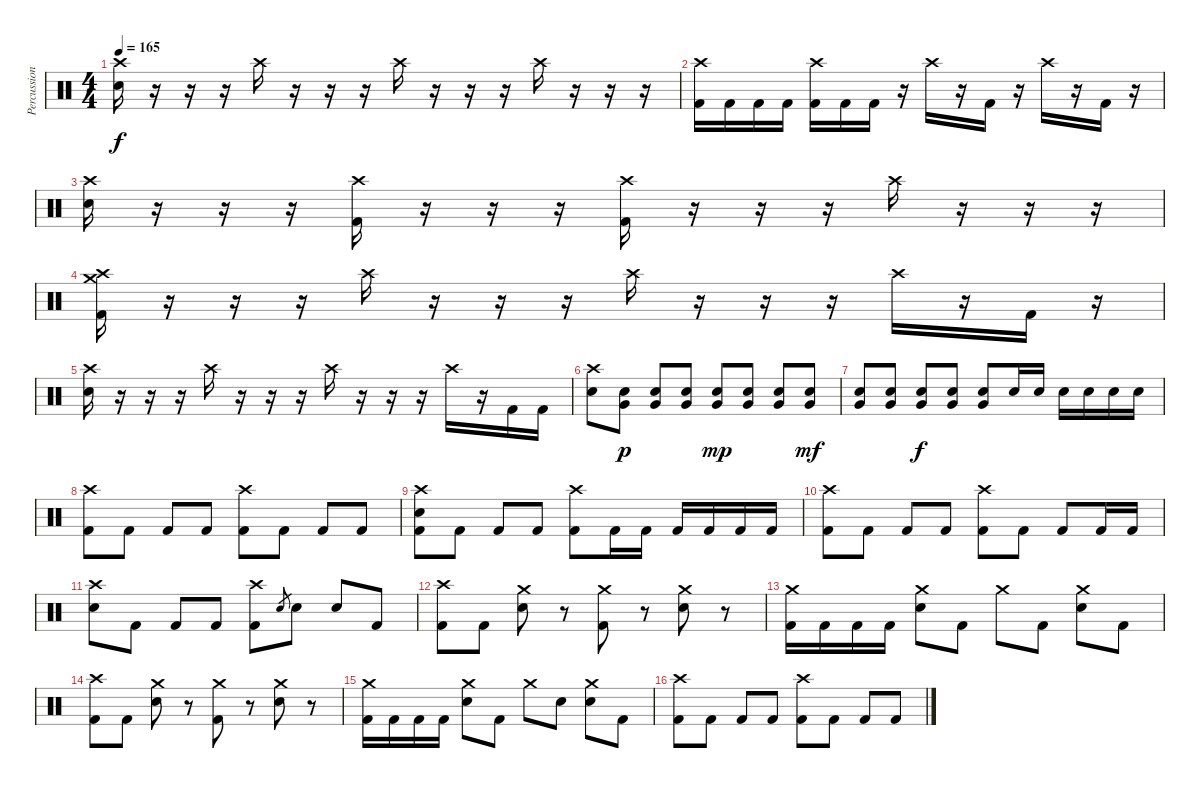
\track ("Percussion" "Percussion") {instrument percussion}
\staff {score}
\articulation defaults
\ts (4 4)
\tempo 165
\clef neutral
\ks c
("Crash high (hit)" "Snare (hit) 2").16{dy f} r.16 r.16 r.16 "Crash high (hit)".16 r.16 r.16 r.16 "Crash high (hit)".16 r.16 r.16 r.16 "Crash high (hit)".16 r.16 r.16 r.16 |
("Crash high (hit)" "Kick (hit) 2").16 "Kick (hit) 2".16 "Kick (hit) 2".16 "Kick (hit) 2".16 ("Crash high (hit)" "Kick (hit) 2").16 "Kick (hit) 2".16 "Kick (hit) 2".16 r.16 "Crash high (hit)".16 r.16 "Kick (hit) 2".16 r.16 "Crash high (hit)".16 r.16 "Kick (hit) 2".16 r.16 |
("Crash high (hit)" "Snare (hit) 2").16 r.16 r.16 r.16 ("Crash high (hit)" "Kick (hit) 2").16 r.16 r.16 r.16 ("Crash high (hit)" "Kick (hit) 2").16 r.16 r.16 r.16 "Crash high (hit)".16 r.16 r.16 r.16 |
("Crash high (hit)" "Crash medium (hit)" "Kick (hit) 2").16 r.16 r.16 r.16 "Crash high (hit)".16 r.16 r.16 r.16 "Crash high (hit)".16 r.16 r.16 r.16 "Crash high (hit)".16 r.16 "Kick (hit) 2".16 r.16 |
("Crash high (hit)" "Snare (hit) 2").16 r.16 r.16 r.16 "Crash high (hit)".16 r.16 r.16 r.16 "Crash high (hit)".16 r.16 r.16 r.16 "Crash high (hit)".16 r.16 "Kick (hit) 2".16 "Kick (hit) 2".16 |
("Crash high (hit)" "Snare (hit) 2").8 ("Snare (hit) 2" "Very Low Tom (hit)").8{dy p} ("Snare (hit) 2" "Very Low Tom (hit)").8 ("Snare (hit) 2" "Very Low Tom (hit)").8 ("Snare (hit) 2" "Very Low Tom (hit)").8{dy mp} ("Snare (hit) 2" "Very Low Tom (hit)").8 ("Snare (hit) 2" "Very Low Tom (hit)").8 ("Snare (hit) 2" "Very Low Tom (hit)").8{dy mf} |
("Snare (hit) 2" "Very Low Tom (hit)").8 ("Snare (hit) 2" "Very Low Tom (hit)").8 ("Snare (hit) 2" "Very Low Tom (hit)").8{dy f} ("Snare (hit) 2" "Very Low Tom (hit)").8 ("Snare (hit) 2" "Very Low Tom (hit)").8 "Snare (hit) 2".16 "Snare (hit) 2".16 "Snare (hit) 2".16 "Snare (hit) 2".16 "Snare (hit) 2".16 "Snare (hit) 2".16 |
("Crash high (hit)" "Kick (hit) 2").8 "Kick (hit) 2".8 "Kick (hit) 2".8 "Kick (hit) 2".8 ("Crash high (hit)" "Kick (hit) 2").8 "Kick (hit) 2".8 "Kick (hit) 2".8 "Kick (hit) 2".8 |
("Crash high (hit)" "Snare (hit) 2" "Kick (hit) 2").8 "Kick (hit) 2".8 "Kick (hit) 2".8 "Kick (hit) 2".8 ("Crash high (hit)" "Kick (hit) 2").8 "Kick (hit) 2".16 "Kick (hit) 2".16 "Kick (hit) 2".16 "Kick (hit) 2".16 "Kick (hit) 2".16 "Kick (hit) 2".16 |
("Crash high (hit)" "Kick (hit) 2").8 "Kick (hit) 2".8 "Kick (hit) 2".8 "Kick (hit) 2".8 ("Crash high (hit)" "Kick (hit) 2").8 "Kick (hit) 2".8 "Kick (hit) 2".8 "Kick (hit) 2".16 "Kick (hit) 2".16 |
("Crash high (hit)" "Snare (hit) 2").8 "Kick (hit) 2".8 "Kick (hit) 2".8 "Kick (hit) 2".8 ("Crash high (hit)" "Kick (hit) 2").8 "Snare (hit) 2".8{gr} "Snare (hit) 2".8 "Snare (hit) 2".8 "Kick (hit) 2".8 |
("Crash high (hit)" "Kick (hit) 2").8 "Kick (hit) 2".8 ("Crash medium (hit)" "Snare (hit) 2").8 r.8 ("Crash medium (hit)" "Kick (hit) 2").8 r.8 ("Crash medium (hit)" "Snare (hit) 2").8 r.8 |
("Crash medium (hit)" "Kick (hit) 2").16 "Kick (hit) 2".16 "Kick (hit) 2".16 "Kick (hit) 2".16 ("Crash medium (hit)" "Snare (hit) 2").8 "Kick (hit) 2".8 "Crash medium (hit)".8 "Kick (hit) 2".8 ("Crash medium (hit)" "Snare (hit) 2").8 "Kick (hit) 2".8 |
("Crash high (hit)" "Kick (hit) 2").8 "Kick (hit) 2".8 ("Crash medium (hit)" "Snare (hit) 2").8 r.8 ("Crash medium (hit)" "Kick (hit) 2").8 r.8 ("Crash medium (hit)" "Snare (hit) 2").8 r.8 |
("Crash medium (hit)" "Kick (hit) 2").16 "Kick (hit) 2".16 "Kick (hit) 2".16 "Kick (hit) 2".16 ("Crash medium (hit)" "Snare (hit) 2").8 "Kick (hit) 2".8 "Crash medium (hit)".8 "Snare (hit) 2".8 ("Crash medium (hit)" "Snare (hit) 2").8 "Kick (hit) 2".8 |
("Crash high (hit)" "Kick (hit) 2").8 "Kick (hit) 2".8 "Kick (hit) 2".8 "Kick (hit) 2".8 ("Crash high (hit)" "Kick (hit) 2").8 "Kick (hit) 2".8 "Kick (hit) 2".8 "Kick (hit) 2".8
